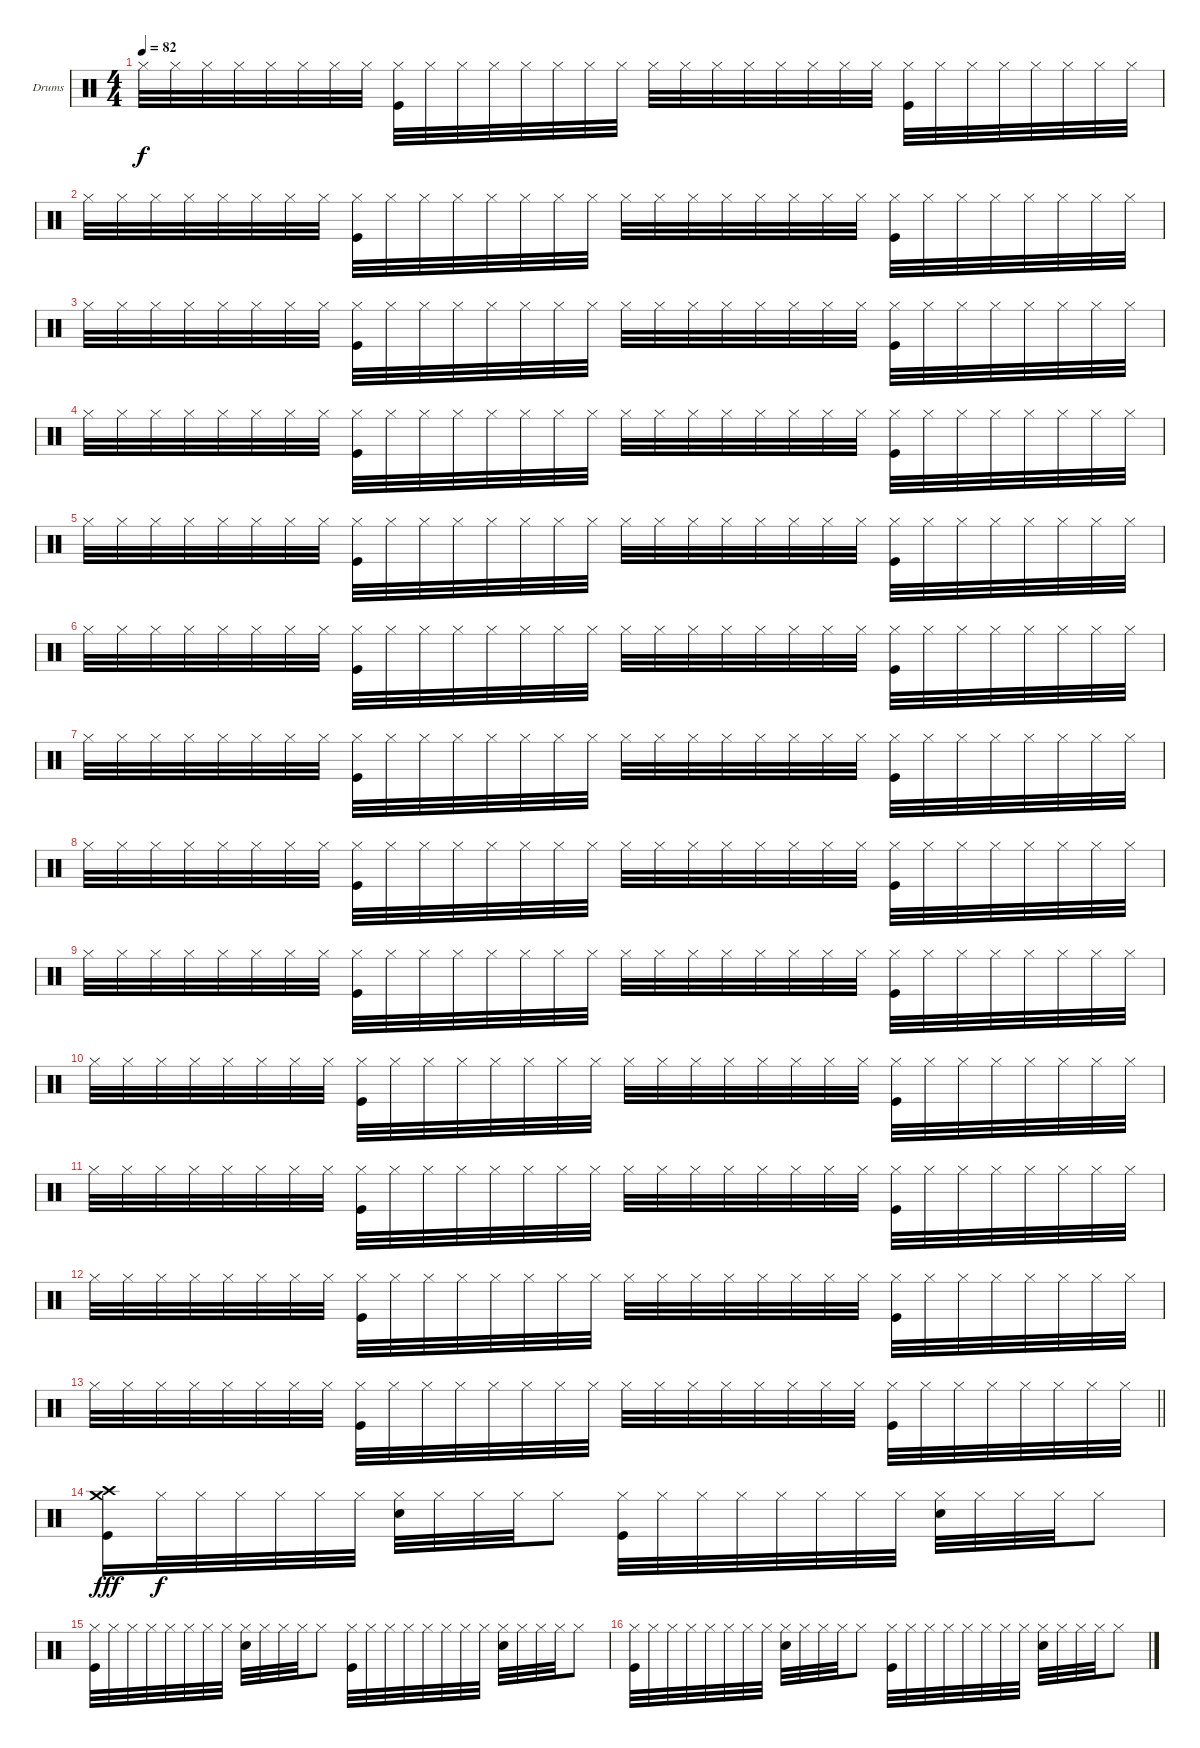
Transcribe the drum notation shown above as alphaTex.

\bracketExtendMode groupsimilarinstruments
\firstSystemTrackNameOrientation horizontal
\otherSystemsTrackNameOrientation horizontal
\track ("Drumkit" "Drums") {instrument percussion}
\staff {score}
\articulation defaults
\ts (4 4)
\tempo 82
\clef neutral
\ks c "Hi-Hat (closed)".32{dy f} "Hi-Hat (closed)".32 "Hi-Hat (closed)".32 "Hi-Hat (closed)".32 "Hi-Hat (closed)".32 "Hi-Hat (closed)".32 "Hi-Hat (closed)".32 "Hi-Hat (closed)".32
("Hi-Hat (closed)" "Kick (hit)").32 "Hi-Hat (closed)".32 "Hi-Hat (closed)".32 "Hi-Hat (closed)".32 "Hi-Hat (closed)".32 "Hi-Hat (closed)".32 "Hi-Hat (closed)".32 "Hi-Hat (closed)".32 "Hi-Hat (closed)".32 "Hi-Hat (closed)".32 "Hi-Hat (closed)".32 "Hi-Hat (closed)".32 "Hi-Hat (closed)".32 "Hi-Hat (closed)".32 "Hi-Hat (closed)".32 "Hi-Hat (closed)".32 ("Hi-Hat (closed)" "Kick (hit)").32 "Hi-Hat (closed)".32 "Hi-Hat (closed)".32 "Hi-Hat (closed)".32 "Hi-Hat (closed)".32 "Hi-Hat (closed)".32 "Hi-Hat (closed)".32 "Hi-Hat (closed)".32 |
"Hi-Hat (closed)".32 "Hi-Hat (closed)".32 "Hi-Hat (closed)".32 "Hi-Hat (closed)".32 "Hi-Hat (closed)".32 "Hi-Hat (closed)".32 "Hi-Hat (closed)".32 "Hi-Hat (closed)".32 ("Hi-Hat (closed)" "Kick (hit)").32 "Hi-Hat (closed)".32 "Hi-Hat (closed)".32 "Hi-Hat (closed)".32 "Hi-Hat (closed)".32 "Hi-Hat (closed)".32 "Hi-Hat (closed)".32 "Hi-Hat (closed)".32 "Hi-Hat (closed)".32 "Hi-Hat (closed)".32 "Hi-Hat (closed)".32 "Hi-Hat (closed)".32 "Hi-Hat (closed)".32 "Hi-Hat (closed)".32 "Hi-Hat (closed)".32 "Hi-Hat (closed)".32 ("Hi-Hat (closed)" "Kick (hit)").32 "Hi-Hat (closed)".32 "Hi-Hat (closed)".32 "Hi-Hat (closed)".32 "Hi-Hat (closed)".32 "Hi-Hat (closed)".32 "Hi-Hat (closed)".32 "Hi-Hat (closed)".32 |
"Hi-Hat (closed)".32 "Hi-Hat (closed)".32 "Hi-Hat (closed)".32 "Hi-Hat (closed)".32 "Hi-Hat (closed)".32 "Hi-Hat (closed)".32 "Hi-Hat (closed)".32 "Hi-Hat (closed)".32 ("Hi-Hat (closed)" "Kick (hit)").32 "Hi-Hat (closed)".32 "Hi-Hat (closed)".32 "Hi-Hat (closed)".32 "Hi-Hat (closed)".32 "Hi-Hat (closed)".32 "Hi-Hat (closed)".32 "Hi-Hat (closed)".32 "Hi-Hat (closed)".32 "Hi-Hat (closed)".32 "Hi-Hat (closed)".32 "Hi-Hat (closed)".32 "Hi-Hat (closed)".32 "Hi-Hat (closed)".32 "Hi-Hat (closed)".32 "Hi-Hat (closed)".32 ("Hi-Hat (closed)" "Kick (hit)").32 "Hi-Hat (closed)".32 "Hi-Hat (closed)".32 "Hi-Hat (closed)".32 "Hi-Hat (closed)".32 "Hi-Hat (closed)".32 "Hi-Hat (closed)".32 "Hi-Hat (closed)".32 |
"Hi-Hat (closed)".32 "Hi-Hat (closed)".32 "Hi-Hat (closed)".32 "Hi-Hat (closed)".32 "Hi-Hat (closed)".32 "Hi-Hat (closed)".32 "Hi-Hat (closed)".32 "Hi-Hat (closed)".32 ("Hi-Hat (closed)" "Kick (hit)").32 "Hi-Hat (closed)".32 "Hi-Hat (closed)".32 "Hi-Hat (closed)".32 "Hi-Hat (closed)".32 "Hi-Hat (closed)".32 "Hi-Hat (closed)".32 "Hi-Hat (closed)".32 "Hi-Hat (closed)".32 "Hi-Hat (closed)".32 "Hi-Hat (closed)".32 "Hi-Hat (closed)".32 "Hi-Hat (closed)".32 "Hi-Hat (closed)".32 "Hi-Hat (closed)".32 "Hi-Hat (closed)".32 ("Hi-Hat (closed)" "Kick (hit)").32 "Hi-Hat (closed)".32 "Hi-Hat (closed)".32 "Hi-Hat (closed)".32 "Hi-Hat (closed)".32 "Hi-Hat (closed)".32 "Hi-Hat (closed)".32 "Hi-Hat (closed)".32 |
"Hi-Hat (closed)".32 "Hi-Hat (closed)".32 "Hi-Hat (closed)".32 "Hi-Hat (closed)".32 "Hi-Hat (closed)".32 "Hi-Hat (closed)".32 "Hi-Hat (closed)".32 "Hi-Hat (closed)".32 ("Hi-Hat (closed)" "Kick (hit)").32 "Hi-Hat (closed)".32 "Hi-Hat (closed)".32 "Hi-Hat (closed)".32 "Hi-Hat (closed)".32 "Hi-Hat (closed)".32 "Hi-Hat (closed)".32 "Hi-Hat (closed)".32 "Hi-Hat (closed)".32 "Hi-Hat (closed)".32 "Hi-Hat (closed)".32 "Hi-Hat (closed)".32 "Hi-Hat (closed)".32 "Hi-Hat (closed)".32 "Hi-Hat (closed)".32 "Hi-Hat (closed)".32 ("Hi-Hat (closed)" "Kick (hit)").32 "Hi-Hat (closed)".32 "Hi-Hat (closed)".32 "Hi-Hat (closed)".32 "Hi-Hat (closed)".32 "Hi-Hat (closed)".32 "Hi-Hat (closed)".32 "Hi-Hat (closed)".32 |
"Hi-Hat (closed)".32 "Hi-Hat (closed)".32 "Hi-Hat (closed)".32 "Hi-Hat (closed)".32 "Hi-Hat (closed)".32 "Hi-Hat (closed)".32 "Hi-Hat (closed)".32 "Hi-Hat (closed)".32 ("Hi-Hat (closed)" "Kick (hit)").32 "Hi-Hat (closed)".32 "Hi-Hat (closed)".32 "Hi-Hat (closed)".32 "Hi-Hat (closed)".32 "Hi-Hat (closed)".32 "Hi-Hat (closed)".32 "Hi-Hat (closed)".32 "Hi-Hat (closed)".32 "Hi-Hat (closed)".32 "Hi-Hat (closed)".32 "Hi-Hat (closed)".32 "Hi-Hat (closed)".32 "Hi-Hat (closed)".32 "Hi-Hat (closed)".32 "Hi-Hat (closed)".32 ("Hi-Hat (closed)" "Kick (hit)").32 "Hi-Hat (closed)".32 "Hi-Hat (closed)".32 "Hi-Hat (closed)".32 "Hi-Hat (closed)".32 "Hi-Hat (closed)".32 "Hi-Hat (closed)".32 "Hi-Hat (closed)".32 |
"Hi-Hat (closed)".32 "Hi-Hat (closed)".32 "Hi-Hat (closed)".32 "Hi-Hat (closed)".32 "Hi-Hat (closed)".32 "Hi-Hat (closed)".32 "Hi-Hat (closed)".32 "Hi-Hat (closed)".32 ("Hi-Hat (closed)" "Kick (hit)").32 "Hi-Hat (closed)".32 "Hi-Hat (closed)".32 "Hi-Hat (closed)".32 "Hi-Hat (closed)".32 "Hi-Hat (closed)".32 "Hi-Hat (closed)".32 "Hi-Hat (closed)".32 "Hi-Hat (closed)".32 "Hi-Hat (closed)".32 "Hi-Hat (closed)".32 "Hi-Hat (closed)".32 "Hi-Hat (closed)".32 "Hi-Hat (closed)".32 "Hi-Hat (closed)".32 "Hi-Hat (closed)".32 ("Hi-Hat (closed)" "Kick (hit)").32 "Hi-Hat (closed)".32 "Hi-Hat (closed)".32 "Hi-Hat (closed)".32 "Hi-Hat (closed)".32 "Hi-Hat (closed)".32 "Hi-Hat (closed)".32 "Hi-Hat (closed)".32 |
"Hi-Hat (closed)".32 "Hi-Hat (closed)".32 "Hi-Hat (closed)".32 "Hi-Hat (closed)".32 "Hi-Hat (closed)".32 "Hi-Hat (closed)".32 "Hi-Hat (closed)".32 "Hi-Hat (closed)".32 ("Hi-Hat (closed)" "Kick (hit)").32 "Hi-Hat (closed)".32 "Hi-Hat (closed)".32 "Hi-Hat (closed)".32 "Hi-Hat (closed)".32 "Hi-Hat (closed)".32 "Hi-Hat (closed)".32 "Hi-Hat (closed)".32 "Hi-Hat (closed)".32 "Hi-Hat (closed)".32 "Hi-Hat (closed)".32 "Hi-Hat (closed)".32 "Hi-Hat (closed)".32 "Hi-Hat (closed)".32 "Hi-Hat (closed)".32 "Hi-Hat (closed)".32 ("Hi-Hat (closed)" "Kick (hit)").32 "Hi-Hat (closed)".32 "Hi-Hat (closed)".32 "Hi-Hat (closed)".32 "Hi-Hat (closed)".32 "Hi-Hat (closed)".32 "Hi-Hat (closed)".32 "Hi-Hat (closed)".32 |
"Hi-Hat (closed)".32 "Hi-Hat (closed)".32 "Hi-Hat (closed)".32 "Hi-Hat (closed)".32 "Hi-Hat (closed)".32 "Hi-Hat (closed)".32 "Hi-Hat (closed)".32 "Hi-Hat (closed)".32 ("Hi-Hat (closed)" "Kick (hit)").32 "Hi-Hat (closed)".32 "Hi-Hat (closed)".32 "Hi-Hat (closed)".32 "Hi-Hat (closed)".32 "Hi-Hat (closed)".32 "Hi-Hat (closed)".32 "Hi-Hat (closed)".32 "Hi-Hat (closed)".32 "Hi-Hat (closed)".32 "Hi-Hat (closed)".32 "Hi-Hat (closed)".32 "Hi-Hat (closed)".32 "Hi-Hat (closed)".32 "Hi-Hat (closed)".32 "Hi-Hat (closed)".32 ("Hi-Hat (closed)" "Kick (hit)").32 "Hi-Hat (closed)".32 "Hi-Hat (closed)".32 "Hi-Hat (closed)".32 "Hi-Hat (closed)".32 "Hi-Hat (closed)".32 "Hi-Hat (closed)".32 "Hi-Hat (closed)".32 |
"Hi-Hat (closed)".32 "Hi-Hat (closed)".32 "Hi-Hat (closed)".32 "Hi-Hat (closed)".32 "Hi-Hat (closed)".32 "Hi-Hat (closed)".32 "Hi-Hat (closed)".32 "Hi-Hat (closed)".32 ("Hi-Hat (closed)" "Kick (hit)").32 "Hi-Hat (closed)".32 "Hi-Hat (closed)".32 "Hi-Hat (closed)".32 "Hi-Hat (closed)".32 "Hi-Hat (closed)".32 "Hi-Hat (closed)".32 "Hi-Hat (closed)".32 "Hi-Hat (closed)".32 "Hi-Hat (closed)".32 "Hi-Hat (closed)".32 "Hi-Hat (closed)".32 "Hi-Hat (closed)".32 "Hi-Hat (closed)".32 "Hi-Hat (closed)".32 "Hi-Hat (closed)".32 ("Hi-Hat (closed)" "Kick (hit)").32 "Hi-Hat (closed)".32 "Hi-Hat (closed)".32 "Hi-Hat (closed)".32 "Hi-Hat (closed)".32 "Hi-Hat (closed)".32 "Hi-Hat (closed)".32 "Hi-Hat (closed)".32 |
"Hi-Hat (closed)".32 "Hi-Hat (closed)".32 "Hi-Hat (closed)".32 "Hi-Hat (closed)".32 "Hi-Hat (closed)".32 "Hi-Hat (closed)".32 "Hi-Hat (closed)".32 "Hi-Hat (closed)".32 ("Hi-Hat (closed)" "Kick (hit)").32 "Hi-Hat (closed)".32 "Hi-Hat (closed)".32 "Hi-Hat (closed)".32 "Hi-Hat (closed)".32 "Hi-Hat (closed)".32 "Hi-Hat (closed)".32 "Hi-Hat (closed)".32 "Hi-Hat (closed)".32 "Hi-Hat (closed)".32 "Hi-Hat (closed)".32 "Hi-Hat (closed)".32 "Hi-Hat (closed)".32 "Hi-Hat (closed)".32 "Hi-Hat (closed)".32 "Hi-Hat (closed)".32 ("Hi-Hat (closed)" "Kick (hit)").32 "Hi-Hat (closed)".32 "Hi-Hat (closed)".32 "Hi-Hat (closed)".32 "Hi-Hat (closed)".32 "Hi-Hat (closed)".32 "Hi-Hat (closed)".32 "Hi-Hat (closed)".32 |
"Hi-Hat (closed)".32 "Hi-Hat (closed)".32 "Hi-Hat (closed)".32 "Hi-Hat (closed)".32 "Hi-Hat (closed)".32 "Hi-Hat (closed)".32 "Hi-Hat (closed)".32 "Hi-Hat (closed)".32 ("Hi-Hat (closed)" "Kick (hit)").32 "Hi-Hat (closed)".32 "Hi-Hat (closed)".32 "Hi-Hat (closed)".32 "Hi-Hat (closed)".32 "Hi-Hat (closed)".32 "Hi-Hat (closed)".32 "Hi-Hat (closed)".32 "Hi-Hat (closed)".32 "Hi-Hat (closed)".32 "Hi-Hat (closed)".32 "Hi-Hat (closed)".32 "Hi-Hat (closed)".32 "Hi-Hat (closed)".32 "Hi-Hat (closed)".32 "Hi-Hat (closed)".32 ("Hi-Hat (closed)" "Kick (hit)").32 "Hi-Hat (closed)".32 "Hi-Hat (closed)".32 "Hi-Hat (closed)".32 "Hi-Hat (closed)".32 "Hi-Hat (closed)".32 "Hi-Hat (closed)".32 "Hi-Hat (closed)".32 |
\barLineRight lightlight "Hi-Hat (closed)".32 "Hi-Hat (closed)".32 "Hi-Hat (closed)".32 "Hi-Hat (closed)".32 "Hi-Hat (closed)".32 "Hi-Hat (closed)".32 "Hi-Hat (closed)".32 "Hi-Hat (closed)".32
("Hi-Hat (closed)" "Kick (hit)").32 "Hi-Hat (closed)".32 "Hi-Hat (closed)".32 "Hi-Hat (closed)".32 "Hi-Hat (closed)".32 "Hi-Hat (closed)".32 "Hi-Hat (closed)".32 "Hi-Hat (closed)".32 "Hi-Hat (closed)".32 "Hi-Hat (closed)".32 "Hi-Hat (closed)".32 "Hi-Hat (closed)".32 "Hi-Hat (closed)".32 "Hi-Hat (closed)".32 "Hi-Hat (closed)".32 "Hi-Hat (closed)".32 ("Hi-Hat (closed)" "Kick (hit)").32 "Hi-Hat (closed)".32 "Hi-Hat (closed)".32 "Hi-Hat (closed)".32 "Hi-Hat (closed)".32 "Hi-Hat (closed)".32 "Hi-Hat (closed)".32 "Hi-Hat (closed)".32 |
("Crash medium (hit)" "Crash high (hit)" "Kick (hit)").16{dy fff} "Hi-Hat (closed)".32{dy f} "Hi-Hat (closed)".32 "Hi-Hat (closed)".32 "Hi-Hat (closed)".32 "Hi-Hat (closed)".32 "Hi-Hat (closed)".32 ("Hi-Hat (closed)" "Snare (hit) 2").32 "Hi-Hat (closed)".32 "Hi-Hat (closed)".32 "Hi-Hat (closed)".32 "Hi-Hat (closed)".8 ("Hi-Hat (closed)" "Kick (hit)").32 "Hi-Hat (closed)".32 "Hi-Hat (closed)".32 "Hi-Hat (closed)".32 "Hi-Hat (closed)".32 "Hi-Hat (closed)".32 "Hi-Hat (closed)".32 "Hi-Hat (closed)".32 ("Hi-Hat (closed)" "Snare (hit) 2").32 "Hi-Hat (closed)".32 "Hi-Hat (closed)".32 "Hi-Hat (closed)".32 "Hi-Hat (closed)".8 |
("Hi-Hat (closed)" "Kick (hit)").32 "Hi-Hat (closed)".32 "Hi-Hat (closed)".32 "Hi-Hat (closed)".32 "Hi-Hat (closed)".32 "Hi-Hat (closed)".32 "Hi-Hat (closed)".32 "Hi-Hat (closed)".32 ("Hi-Hat (closed)" "Snare (hit) 2").32 "Hi-Hat (closed)".32 "Hi-Hat (closed)".32 "Hi-Hat (closed)".32 "Hi-Hat (closed)".8 ("Hi-Hat (closed)" "Kick (hit)").32 "Hi-Hat (closed)".32 "Hi-Hat (closed)".32 "Hi-Hat (closed)".32 "Hi-Hat (closed)".32 "Hi-Hat (closed)".32 "Hi-Hat (closed)".32 "Hi-Hat (closed)".32 ("Hi-Hat (closed)" "Snare (hit) 2").32 "Hi-Hat (closed)".32 "Hi-Hat (closed)".32 "Hi-Hat (closed)".32 "Hi-Hat (closed)".8 |
("Hi-Hat (closed)" "Kick (hit)").32 "Hi-Hat (closed)".32 "Hi-Hat (closed)".32 "Hi-Hat (closed)".32 "Hi-Hat (closed)".32 "Hi-Hat (closed)".32 "Hi-Hat (closed)".32 "Hi-Hat (closed)".32 ("Hi-Hat (closed)" "Snare (hit) 2").32 "Hi-Hat (closed)".32 "Hi-Hat (closed)".32 "Hi-Hat (closed)".32 "Hi-Hat (closed)".8 ("Hi-Hat (closed)" "Kick (hit)").32 "Hi-Hat (closed)".32 "Hi-Hat (closed)".32 "Hi-Hat (closed)".32 "Hi-Hat (closed)".32 "Hi-Hat (closed)".32 "Hi-Hat (closed)".32 "Hi-Hat (closed)".32 ("Hi-Hat (closed)" "Snare (hit) 2").32 "Hi-Hat (closed)".32 "Hi-Hat (closed)".32 "Hi-Hat (closed)".32 "Hi-Hat (closed)".8
